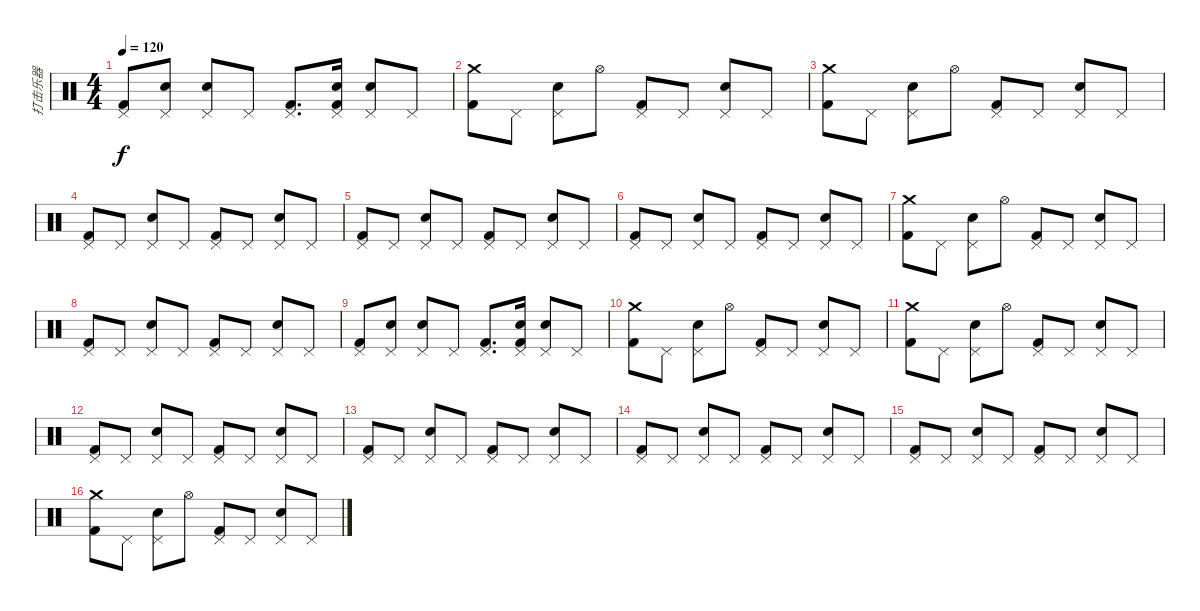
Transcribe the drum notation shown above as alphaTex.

\track ("打击乐器" "打击乐器") {instrument percussion}
\staff {score}
\articulation defaults
\ts (4 4)
\tempo 120
\clef neutral
\ks c
("Pedal Hi-Hat (hit)" "Kick (hit) 2").8{dy f} ("Pedal Hi-Hat (hit)" "Electric Snare (hit)").8 ("Pedal Hi-Hat (hit)" "Electric Snare (hit)").8 "Pedal Hi-Hat (hit)".8 ("Pedal Hi-Hat (hit)" "Kick (hit) 2").8{d} ("Pedal Hi-Hat (hit)" "Electric Snare (hit)" "Kick (hit) 2").16 ("Pedal Hi-Hat (hit)" "Electric Snare (hit)").8 "Pedal Hi-Hat (hit)".8 |
("Crash medium (hit)" "Kick (hit) 2").8 "Pedal Hi-Hat (hit)".8 ("Pedal Hi-Hat (hit)" "Electric Snare (hit)").8 "Hi-Hat (open)".8 ("Pedal Hi-Hat (hit)" "Kick (hit) 2").8 "Pedal Hi-Hat (hit)".8 ("Pedal Hi-Hat (hit)" "Electric Snare (hit)").8 "Pedal Hi-Hat (hit)".8 |
("Crash medium (hit)" "Kick (hit) 2").8 "Pedal Hi-Hat (hit)".8 ("Pedal Hi-Hat (hit)" "Electric Snare (hit)").8 "Hi-Hat (open)".8 ("Pedal Hi-Hat (hit)" "Kick (hit) 2").8 "Pedal Hi-Hat (hit)".8 ("Pedal Hi-Hat (hit)" "Electric Snare (hit)").8 "Pedal Hi-Hat (hit)".8 |
("Pedal Hi-Hat (hit)" "Kick (hit) 2").8 "Pedal Hi-Hat (hit)".8 ("Pedal Hi-Hat (hit)" "Electric Snare (hit)").8 "Pedal Hi-Hat (hit)".8 ("Pedal Hi-Hat (hit)" "Kick (hit) 2").8 "Pedal Hi-Hat (hit)".8 ("Pedal Hi-Hat (hit)" "Electric Snare (hit)").8 "Pedal Hi-Hat (hit)".8 |
("Pedal Hi-Hat (hit)" "Kick (hit) 2").8 "Pedal Hi-Hat (hit)".8 ("Pedal Hi-Hat (hit)" "Electric Snare (hit)").8 "Pedal Hi-Hat (hit)".8 ("Pedal Hi-Hat (hit)" "Kick (hit) 2").8 "Pedal Hi-Hat (hit)".8 ("Pedal Hi-Hat (hit)" "Electric Snare (hit)").8 "Pedal Hi-Hat (hit)".8 |
("Pedal Hi-Hat (hit)" "Kick (hit) 2").8 "Pedal Hi-Hat (hit)".8 ("Pedal Hi-Hat (hit)" "Electric Snare (hit)").8 "Pedal Hi-Hat (hit)".8 ("Pedal Hi-Hat (hit)" "Kick (hit) 2").8 "Pedal Hi-Hat (hit)".8 ("Pedal Hi-Hat (hit)" "Electric Snare (hit)").8 "Pedal Hi-Hat (hit)".8 |
("Crash medium (hit)" "Kick (hit) 2").8 "Pedal Hi-Hat (hit)".8 ("Pedal Hi-Hat (hit)" "Electric Snare (hit)").8 "Hi-Hat (open)".8 ("Pedal Hi-Hat (hit)" "Kick (hit) 2").8 "Pedal Hi-Hat (hit)".8 ("Pedal Hi-Hat (hit)" "Electric Snare (hit)").8 "Pedal Hi-Hat (hit)".8 |
("Pedal Hi-Hat (hit)" "Kick (hit) 2").8 "Pedal Hi-Hat (hit)".8 ("Pedal Hi-Hat (hit)" "Electric Snare (hit)").8 "Pedal Hi-Hat (hit)".8 ("Pedal Hi-Hat (hit)" "Kick (hit) 2").8 "Pedal Hi-Hat (hit)".8 ("Pedal Hi-Hat (hit)" "Electric Snare (hit)").8 "Pedal Hi-Hat (hit)".8 |
("Pedal Hi-Hat (hit)" "Kick (hit) 2").8 ("Pedal Hi-Hat (hit)" "Electric Snare (hit)").8 ("Pedal Hi-Hat (hit)" "Electric Snare (hit)").8 "Pedal Hi-Hat (hit)".8 ("Pedal Hi-Hat (hit)" "Kick (hit) 2").8{d} ("Pedal Hi-Hat (hit)" "Electric Snare (hit)" "Kick (hit) 2").16 ("Pedal Hi-Hat (hit)" "Electric Snare (hit)").8 "Pedal Hi-Hat (hit)".8 |
("Crash medium (hit)" "Kick (hit) 2").8 "Pedal Hi-Hat (hit)".8 ("Pedal Hi-Hat (hit)" "Electric Snare (hit)").8 "Hi-Hat (open)".8 ("Pedal Hi-Hat (hit)" "Kick (hit) 2").8 "Pedal Hi-Hat (hit)".8 ("Pedal Hi-Hat (hit)" "Electric Snare (hit)").8 "Pedal Hi-Hat (hit)".8 |
("Crash medium (hit)" "Kick (hit) 2").8 "Pedal Hi-Hat (hit)".8 ("Pedal Hi-Hat (hit)" "Electric Snare (hit)").8 "Hi-Hat (open)".8 ("Pedal Hi-Hat (hit)" "Kick (hit) 2").8 "Pedal Hi-Hat (hit)".8 ("Pedal Hi-Hat (hit)" "Electric Snare (hit)").8 "Pedal Hi-Hat (hit)".8 |
("Pedal Hi-Hat (hit)" "Kick (hit) 2").8 "Pedal Hi-Hat (hit)".8 ("Pedal Hi-Hat (hit)" "Electric Snare (hit)").8 "Pedal Hi-Hat (hit)".8 ("Pedal Hi-Hat (hit)" "Kick (hit) 2").8 "Pedal Hi-Hat (hit)".8 ("Pedal Hi-Hat (hit)" "Electric Snare (hit)").8 "Pedal Hi-Hat (hit)".8 |
("Pedal Hi-Hat (hit)" "Kick (hit) 2").8 "Pedal Hi-Hat (hit)".8 ("Pedal Hi-Hat (hit)" "Electric Snare (hit)").8 "Pedal Hi-Hat (hit)".8 ("Pedal Hi-Hat (hit)" "Kick (hit) 2").8 "Pedal Hi-Hat (hit)".8 ("Pedal Hi-Hat (hit)" "Electric Snare (hit)").8 "Pedal Hi-Hat (hit)".8 |
("Pedal Hi-Hat (hit)" "Kick (hit) 2").8 "Pedal Hi-Hat (hit)".8 ("Pedal Hi-Hat (hit)" "Electric Snare (hit)").8 "Pedal Hi-Hat (hit)".8 ("Pedal Hi-Hat (hit)" "Kick (hit) 2").8 "Pedal Hi-Hat (hit)".8 ("Pedal Hi-Hat (hit)" "Electric Snare (hit)").8 "Pedal Hi-Hat (hit)".8 |
("Pedal Hi-Hat (hit)" "Kick (hit) 2").8 "Pedal Hi-Hat (hit)".8 ("Pedal Hi-Hat (hit)" "Electric Snare (hit)").8 "Pedal Hi-Hat (hit)".8 ("Pedal Hi-Hat (hit)" "Kick (hit) 2").8 "Pedal Hi-Hat (hit)".8 ("Pedal Hi-Hat (hit)" "Electric Snare (hit)").8 "Pedal Hi-Hat (hit)".8 |
("Crash medium (hit)" "Kick (hit) 2").8 "Pedal Hi-Hat (hit)".8 ("Pedal Hi-Hat (hit)" "Electric Snare (hit)").8 "Hi-Hat (open)".8 ("Pedal Hi-Hat (hit)" "Kick (hit) 2").8 "Pedal Hi-Hat (hit)".8 ("Pedal Hi-Hat (hit)" "Electric Snare (hit)").8 "Pedal Hi-Hat (hit)".8
